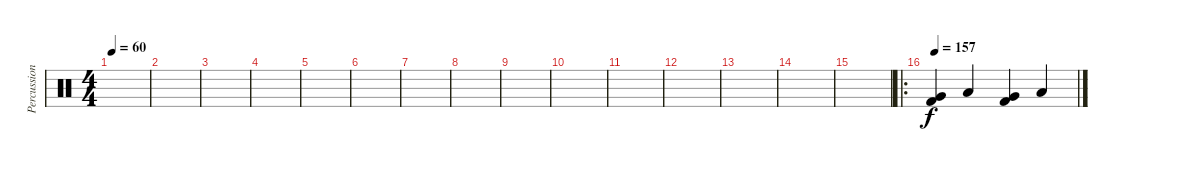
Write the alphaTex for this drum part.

\track ("Percussion" "Percussion") {instrument percussion}
\staff {score}
\articulation defaults
\ts (4 4)
\tempo 60
\clef neutral
\ks c
|
|
|
|
|
|
|
|
|
|
|
|
|
|
|
\ro
\tempo 157
("Kick (hit) 2" "Very Low Tom (hit)").4 "Low Floor Tom (hit)".4 ("Kick (hit) 2" "Very Low Tom (hit)").4 "Low Floor Tom (hit)".4
